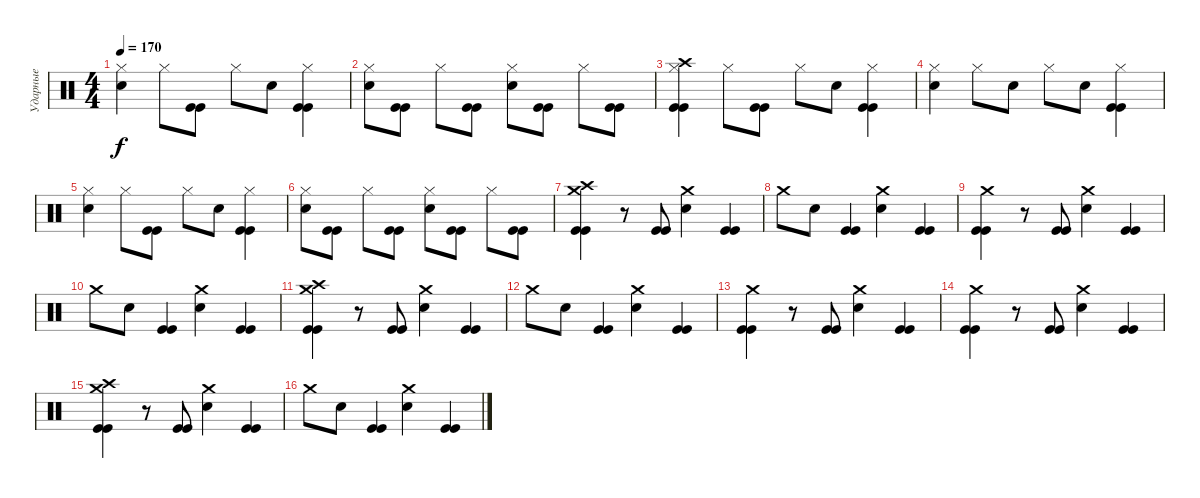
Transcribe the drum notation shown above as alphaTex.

\track ("Ударные" "Ударные") {instrument percussion}
\staff {score}
\articulation defaults
\ts (4 4)
\tempo 170
\clef neutral
\ks c
("Hi-Hat (closed)" "Electric Snare (hit)").4{dy f} "Hi-Hat (closed)".8 ("Kick (hit)" "Kick (hit)").8 "Hi-Hat (closed)".8 "Electric Snare (hit)".8 ("Hi-Hat (closed)" "Kick (hit)" "Kick (hit)").4 |
("Hi-Hat (closed)" "Electric Snare (hit)").8 ("Kick (hit)" "Kick (hit)").8 "Hi-Hat (closed)".8 ("Kick (hit)" "Kick (hit)").8 ("Hi-Hat (closed)" "Electric Snare (hit)").8 ("Kick (hit)" "Kick (hit)").8 "Hi-Hat (closed)".8 ("Kick (hit)" "Kick (hit)").8 |
("Crash high (hit)" "Hi-Hat (closed)" "Kick (hit)" "Kick (hit)").4 "Hi-Hat (closed)".8 ("Kick (hit)" "Kick (hit)").8 "Hi-Hat (closed)".8 "Electric Snare (hit)".8 ("Hi-Hat (closed)" "Kick (hit)" "Kick (hit)").4 |
("Hi-Hat (closed)" "Electric Snare (hit)").4 "Hi-Hat (closed)".8 "Electric Snare (hit)".8 "Hi-Hat (closed)".8 "Electric Snare (hit)".8 ("Hi-Hat (closed)" "Kick (hit)" "Kick (hit)").4 |
("Hi-Hat (closed)" "Electric Snare (hit)").4 "Hi-Hat (closed)".8 ("Kick (hit)" "Kick (hit)").8 "Hi-Hat (closed)".8 "Electric Snare (hit)".8 ("Hi-Hat (closed)" "Kick (hit)" "Kick (hit)").4 |
("Hi-Hat (closed)" "Electric Snare (hit)").8 ("Kick (hit)" "Kick (hit)").8 "Hi-Hat (closed)".8 ("Kick (hit)" "Kick (hit)").8 ("Hi-Hat (closed)" "Electric Snare (hit)").8 ("Kick (hit)" "Kick (hit)").8 "Hi-Hat (closed)".8 ("Kick (hit)" "Kick (hit)").8 |
("Crash high (hit)" "Crash medium (hit)" "Kick (hit)" "Kick (hit)").4 r.8 ("Kick (hit)" "Kick (hit)").8 ("Crash medium (hit)" "Electric Snare (hit)").4 ("Kick (hit)" "Kick (hit)").4 |
"Crash medium (hit)".8 "Electric Snare (hit)".8 ("Kick (hit)" "Kick (hit)").4 ("Crash medium (hit)" "Electric Snare (hit)").4 ("Kick (hit)" "Kick (hit)").4 |
("Crash medium (hit)" "Kick (hit)" "Kick (hit)").4 r.8 ("Kick (hit)" "Kick (hit)").8 ("Crash medium (hit)" "Electric Snare (hit)").4 ("Kick (hit)" "Kick (hit)").4 |
"Crash medium (hit)".8 "Electric Snare (hit)".8 ("Kick (hit)" "Kick (hit)").4 ("Crash medium (hit)" "Electric Snare (hit)").4 ("Kick (hit)" "Kick (hit)").4 |
("Crash high (hit)" "Crash medium (hit)" "Kick (hit)" "Kick (hit)").4 r.8 ("Kick (hit)" "Kick (hit)").8 ("Crash medium (hit)" "Electric Snare (hit)").4 ("Kick (hit)" "Kick (hit)").4 |
"Crash medium (hit)".8 "Electric Snare (hit)".8 ("Kick (hit)" "Kick (hit)").4 ("Crash medium (hit)" "Electric Snare (hit)").4 ("Kick (hit)" "Kick (hit)").4 |
("Crash medium (hit)" "Kick (hit)" "Kick (hit)").4 r.8 ("Kick (hit)" "Kick (hit)").8 ("Crash medium (hit)" "Electric Snare (hit)").4 ("Kick (hit)" "Kick (hit)").4 |
("Crash medium (hit)" "Kick (hit)" "Kick (hit)").4 r.8 ("Kick (hit)" "Kick (hit)").8 ("Crash medium (hit)" "Electric Snare (hit)").4 ("Kick (hit)" "Kick (hit)").4 |
("Crash high (hit)" "Crash medium (hit)" "Kick (hit)" "Kick (hit)").4 r.8 ("Kick (hit)" "Kick (hit)").8 ("Crash medium (hit)" "Electric Snare (hit)").4 ("Kick (hit)" "Kick (hit)").4 |
"Crash medium (hit)".8 "Electric Snare (hit)".8 ("Kick (hit)" "Kick (hit)").4 ("Crash medium (hit)" "Electric Snare (hit)").4 ("Kick (hit)" "Kick (hit)").4
